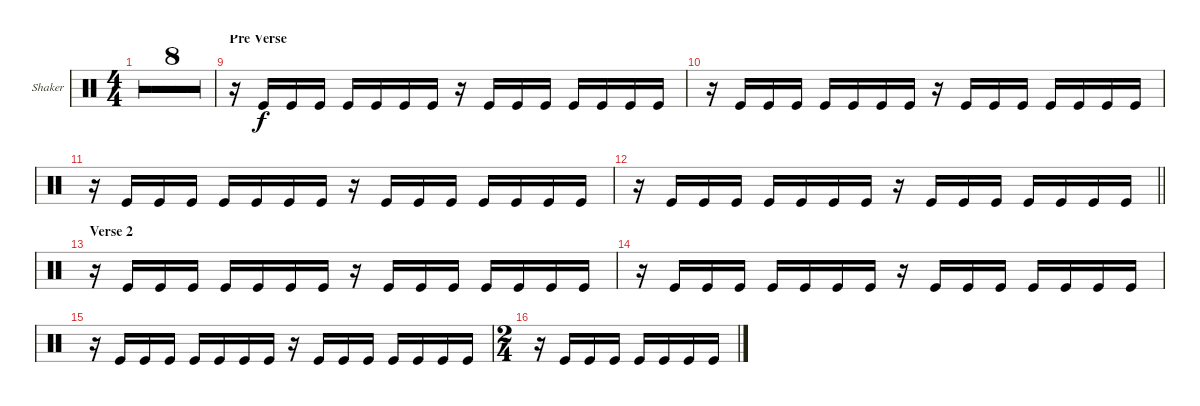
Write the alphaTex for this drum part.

\bracketExtendMode groupsimilarinstruments
\firstSystemTrackNameOrientation horizontal
\otherSystemsTrackNameOrientation horizontal
\track ("Shaker" "Shaker") {multiBarRest instrument percussion}
\staff {score}
\articulation defaults
\ts (4 4)
\tempo 90
\clef neutral
\ks c
r.16{dy f} r.16 r.16 r.16 r.16 r.16 r.16 r.16 r.16 r.16 r.16 r.16 r.16 r.16 r.16 r.16 |
r.16 r.16 r.16 r.16 r.16 r.16 r.16 r.16 r.16 r.16 r.16 r.16 r.16 r.16 r.16 r.16 |
r.16 r.16 r.16 r.16 r.16 r.16 r.16 r.16 r.16 r.16 r.16 r.16 r.16 r.16 r.16 r.16 |
r.16 r.16 r.16 r.16 r.16 r.16 r.16 r.16 r.16 r.16 r.16 r.16 r.16 r.16 r.16 r.16 |
r.16 r.16 r.16 r.16 r.16 r.16 r.16 r.16 r.16 r.16 r.16 r.16 r.16 r.16 r.16 r.16 |
r.16 r.16 r.16 r.16 r.16 r.16 r.16 r.16 r.16 r.16 r.16 r.16 r.16 r.16 r.16 r.16 |
r.16 r.16 r.16 r.16 r.16 r.16 r.16 r.16 r.16 r.16 r.16 r.16 r.16 r.16 r.16 r.16 |
\barLineRight lightlight
r.16 r.16 r.16 r.16 r.16 r.16 r.16 r.16 r.16 r.16 r.16 r.16 r.16 r.16 r.16 r.16 |
\section ("" "Pre Verse")
r.16 "Kick (hit)".16 "Kick (hit)".16 "Kick (hit)".16 "Kick (hit)".16 "Kick (hit)".16 "Kick (hit)".16 "Kick (hit)".16 r.16 "Kick (hit)".16 "Kick (hit)".16 "Kick (hit)".16 "Kick (hit)".16 "Kick (hit)".16 "Kick (hit)".16 "Kick (hit)".16 |
r.16 "Kick (hit)".16 "Kick (hit)".16 "Kick (hit)".16 "Kick (hit)".16 "Kick (hit)".16 "Kick (hit)".16 "Kick (hit)".16 r.16 "Kick (hit)".16 "Kick (hit)".16 "Kick (hit)".16 "Kick (hit)".16 "Kick (hit)".16 "Kick (hit)".16 "Kick (hit)".16 |
r.16 "Kick (hit)".16 "Kick (hit)".16 "Kick (hit)".16 "Kick (hit)".16 "Kick (hit)".16 "Kick (hit)".16 "Kick (hit)".16 r.16 "Kick (hit)".16 "Kick (hit)".16 "Kick (hit)".16 "Kick (hit)".16 "Kick (hit)".16 "Kick (hit)".16 "Kick (hit)".16 |
\barLineRight lightlight
r.16 "Kick (hit)".16 "Kick (hit)".16 "Kick (hit)".16 "Kick (hit)".16 "Kick (hit)".16 "Kick (hit)".16 "Kick (hit)".16 r.16 "Kick (hit)".16 "Kick (hit)".16 "Kick (hit)".16 "Kick (hit)".16 "Kick (hit)".16 "Kick (hit)".16 "Kick (hit)".16 |
\section ("" "Verse 2")
r.16 "Kick (hit)".16 "Kick (hit)".16 "Kick (hit)".16 "Kick (hit)".16 "Kick (hit)".16 "Kick (hit)".16 "Kick (hit)".16 r.16 "Kick (hit)".16 "Kick (hit)".16 "Kick (hit)".16 "Kick (hit)".16 "Kick (hit)".16 "Kick (hit)".16 "Kick (hit)".16 |
r.16 "Kick (hit)".16 "Kick (hit)".16 "Kick (hit)".16 "Kick (hit)".16 "Kick (hit)".16 "Kick (hit)".16 "Kick (hit)".16 r.16 "Kick (hit)".16 "Kick (hit)".16 "Kick (hit)".16 "Kick (hit)".16 "Kick (hit)".16 "Kick (hit)".16 "Kick (hit)".16 |
r.16 "Kick (hit)".16 "Kick (hit)".16 "Kick (hit)".16 "Kick (hit)".16 "Kick (hit)".16 "Kick (hit)".16 "Kick (hit)".16 r.16 "Kick (hit)".16 "Kick (hit)".16 "Kick (hit)".16 "Kick (hit)".16 "Kick (hit)".16 "Kick (hit)".16 "Kick (hit)".16 |
\ts (2 4)
\beaming (8 2 2)
r.16 "Kick (hit)".16 "Kick (hit)".16 "Kick (hit)".16 "Kick (hit)".16 "Kick (hit)".16 "Kick (hit)".16 "Kick (hit)".16
